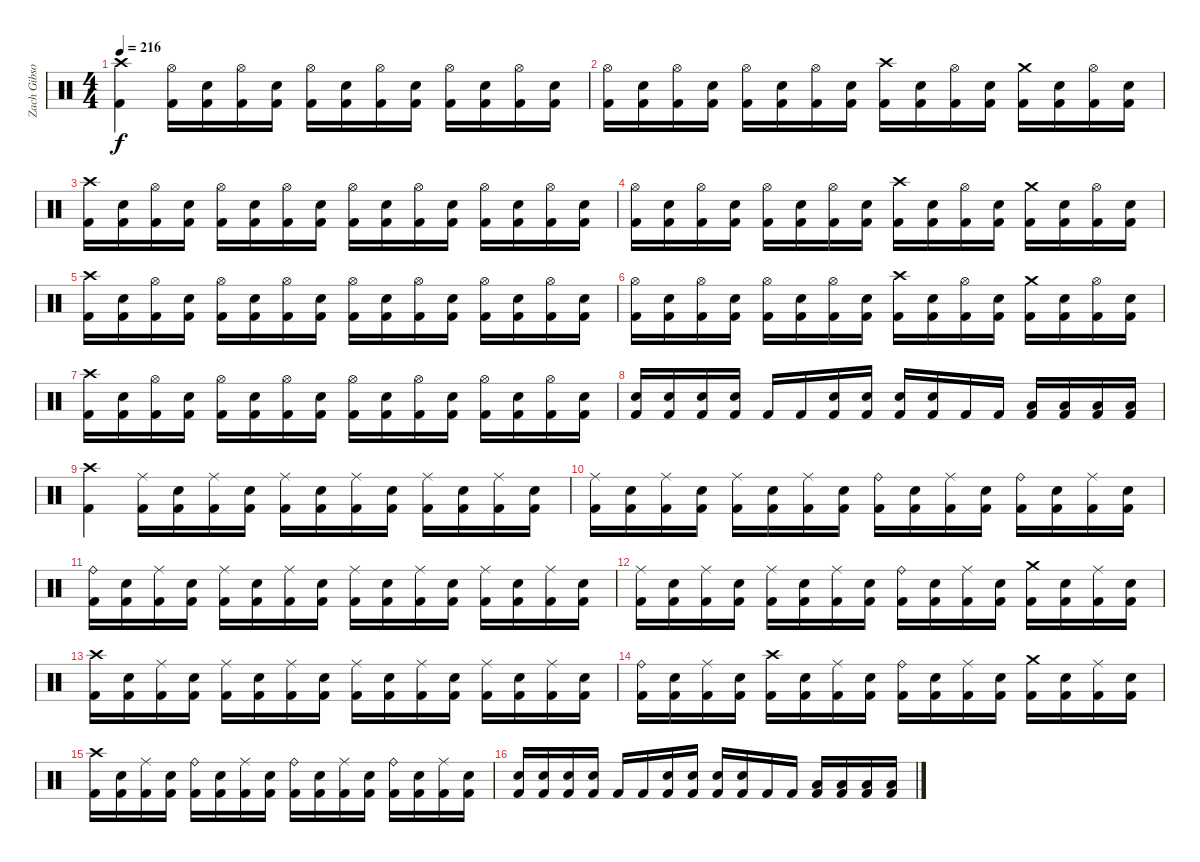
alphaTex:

\track ("Zach Gibson (Ex-Drums)" "Zach Gibso") {instrument percussion}
\staff {score}
\articulation defaults
\ts (4 4)
\tempo 216
\clef neutral
\ks c
("Crash high (hit)" "Kick (hit) 2").4{dy f} ("Hi-Hat (open)" "Kick (hit) 2").16 ("Snare (hit) 2" "Kick (hit) 2").16 ("Hi-Hat (open)" "Kick (hit) 2").16 ("Snare (hit) 2" "Kick (hit) 2").16 ("Hi-Hat (open)" "Kick (hit) 2").16 ("Snare (hit) 2" "Kick (hit) 2").16 ("Hi-Hat (open)" "Kick (hit) 2").16 ("Snare (hit) 2" "Kick (hit) 2").16 ("Hi-Hat (open)" "Kick (hit) 2").16 ("Snare (hit) 2" "Kick (hit) 2").16 ("Hi-Hat (open)" "Kick (hit) 2").16 ("Snare (hit) 2" "Kick (hit) 2").16 |
("Hi-Hat (open)" "Kick (hit) 2").16 ("Snare (hit) 2" "Kick (hit) 2").16 ("Hi-Hat (open)" "Kick (hit) 2").16 ("Snare (hit) 2" "Kick (hit) 2").16 ("Hi-Hat (open)" "Kick (hit) 2").16 ("Snare (hit) 2" "Kick (hit) 2").16 ("Hi-Hat (open)" "Kick (hit) 2").16 ("Snare (hit) 2" "Kick (hit) 2").16 ("Crash high (hit)" "Kick (hit) 2").16 ("Snare (hit) 2" "Kick (hit) 2").16 ("Hi-Hat (open)" "Kick (hit) 2").16 ("Snare (hit) 2" "Kick (hit) 2").16 ("Crash medium (hit)" "Kick (hit) 2").16 ("Snare (hit) 2" "Kick (hit) 2").16 ("Hi-Hat (open)" "Kick (hit) 2").16 ("Snare (hit) 2" "Kick (hit) 2").16 |
("Crash high (hit)" "Kick (hit) 2").16 ("Snare (hit) 2" "Kick (hit) 2").16 ("Hi-Hat (open)" "Kick (hit) 2").16 ("Snare (hit) 2" "Kick (hit) 2").16 ("Hi-Hat (open)" "Kick (hit) 2").16 ("Snare (hit) 2" "Kick (hit) 2").16 ("Hi-Hat (open)" "Kick (hit) 2").16 ("Snare (hit) 2" "Kick (hit) 2").16 ("Hi-Hat (open)" "Kick (hit) 2").16 ("Snare (hit) 2" "Kick (hit) 2").16 ("Hi-Hat (open)" "Kick (hit) 2").16 ("Snare (hit) 2" "Kick (hit) 2").16 ("Hi-Hat (open)" "Kick (hit) 2").16 ("Snare (hit) 2" "Kick (hit) 2").16 ("Hi-Hat (open)" "Kick (hit) 2").16 ("Snare (hit) 2" "Kick (hit) 2").16 |
("Hi-Hat (open)" "Kick (hit) 2").16 ("Snare (hit) 2" "Kick (hit) 2").16 ("Hi-Hat (open)" "Kick (hit) 2").16 ("Snare (hit) 2" "Kick (hit) 2").16 ("Hi-Hat (open)" "Kick (hit) 2").16 ("Snare (hit) 2" "Kick (hit) 2").16 ("Hi-Hat (open)" "Kick (hit) 2").16 ("Snare (hit) 2" "Kick (hit) 2").16 ("Crash high (hit)" "Kick (hit) 2").16 ("Snare (hit) 2" "Kick (hit) 2").16 ("Hi-Hat (open)" "Kick (hit) 2").16 ("Snare (hit) 2" "Kick (hit) 2").16 ("Crash medium (hit)" "Kick (hit) 2").16 ("Snare (hit) 2" "Kick (hit) 2").16 ("Hi-Hat (open)" "Kick (hit) 2").16 ("Snare (hit) 2" "Kick (hit) 2").16 |
("Crash high (hit)" "Kick (hit) 2").16 ("Snare (hit) 2" "Kick (hit) 2").16 ("Hi-Hat (open)" "Kick (hit) 2").16 ("Snare (hit) 2" "Kick (hit) 2").16 ("Hi-Hat (open)" "Kick (hit) 2").16 ("Snare (hit) 2" "Kick (hit) 2").16 ("Hi-Hat (open)" "Kick (hit) 2").16 ("Snare (hit) 2" "Kick (hit) 2").16 ("Hi-Hat (open)" "Kick (hit) 2").16 ("Snare (hit) 2" "Kick (hit) 2").16 ("Hi-Hat (open)" "Kick (hit) 2").16 ("Snare (hit) 2" "Kick (hit) 2").16 ("Hi-Hat (open)" "Kick (hit) 2").16 ("Snare (hit) 2" "Kick (hit) 2").16 ("Hi-Hat (open)" "Kick (hit) 2").16 ("Snare (hit) 2" "Kick (hit) 2").16 |
("Hi-Hat (open)" "Kick (hit) 2").16 ("Snare (hit) 2" "Kick (hit) 2").16 ("Hi-Hat (open)" "Kick (hit) 2").16 ("Snare (hit) 2" "Kick (hit) 2").16 ("Hi-Hat (open)" "Kick (hit) 2").16 ("Snare (hit) 2" "Kick (hit) 2").16 ("Hi-Hat (open)" "Kick (hit) 2").16 ("Snare (hit) 2" "Kick (hit) 2").16 ("Crash high (hit)" "Kick (hit) 2").16 ("Snare (hit) 2" "Kick (hit) 2").16 ("Hi-Hat (open)" "Kick (hit) 2").16 ("Snare (hit) 2" "Kick (hit) 2").16 ("Crash medium (hit)" "Kick (hit) 2").16 ("Snare (hit) 2" "Kick (hit) 2").16 ("Hi-Hat (open)" "Kick (hit) 2").16 ("Snare (hit) 2" "Kick (hit) 2").16 |
("Crash high (hit)" "Kick (hit) 2").16 ("Snare (hit) 2" "Kick (hit) 2").16 ("Hi-Hat (open)" "Kick (hit) 2").16 ("Snare (hit) 2" "Kick (hit) 2").16 ("Hi-Hat (open)" "Kick (hit) 2").16 ("Snare (hit) 2" "Kick (hit) 2").16 ("Hi-Hat (open)" "Kick (hit) 2").16 ("Snare (hit) 2" "Kick (hit) 2").16 ("Hi-Hat (open)" "Kick (hit) 2").16 ("Snare (hit) 2" "Kick (hit) 2").16 ("Hi-Hat (open)" "Kick (hit) 2").16 ("Snare (hit) 2" "Kick (hit) 2").16 ("Hi-Hat (open)" "Kick (hit) 2").16 ("Snare (hit) 2" "Kick (hit) 2").16 ("Hi-Hat (open)" "Kick (hit) 2").16 ("Snare (hit) 2" "Kick (hit) 2").16 |
("Snare (hit) 2" "Kick (hit) 2").16 ("Snare (hit) 2" "Kick (hit) 2").16 ("Snare (hit) 2" "Kick (hit) 2").16 ("Snare (hit) 2" "Kick (hit) 2").16 "Kick (hit) 2".16 "Kick (hit) 2".16 ("Snare (hit) 2" "Kick (hit) 2").16 ("Snare (hit) 2" "Kick (hit) 2").16 ("Snare (hit) 2" "Kick (hit) 2").16 ("Snare (hit) 2" "Kick (hit) 2").16 "Kick (hit) 2".16 "Kick (hit) 2".16 ("Low Tom (hit)" "Kick (hit) 2").16 ("Low Tom (hit)" "Kick (hit) 2").16 ("Low Floor Tom (hit)" "Kick (hit) 2").16 ("Low Floor Tom (hit)" "Kick (hit) 2").16 |
("Crash high (hit)" "Kick (hit) 2").4 ("Ride (middle)" "Kick (hit) 2").16 ("Snare (hit) 2" "Kick (hit) 2").16 ("Ride (middle)" "Kick (hit) 2").16 ("Snare (hit) 2" "Kick (hit) 2").16 ("Ride (middle)" "Kick (hit) 2").16 ("Snare (hit) 2" "Kick (hit) 2").16 ("Ride (middle)" "Kick (hit) 2").16 ("Snare (hit) 2" "Kick (hit) 2").16 ("Ride (middle)" "Kick (hit) 2").16 ("Snare (hit) 2" "Kick (hit) 2").16 ("Ride (middle)" "Kick (hit) 2").16 ("Snare (hit) 2" "Kick (hit) 2").16 |
("Ride (middle)" "Kick (hit) 2").16 ("Snare (hit) 2" "Kick (hit) 2").16 ("Ride (middle)" "Kick (hit) 2").16 ("Snare (hit) 2" "Kick (hit) 2").16 ("Ride (middle)" "Kick (hit) 2").16 ("Snare (hit) 2" "Kick (hit) 2").16 ("Ride (middle)" "Kick (hit) 2").16 ("Snare (hit) 2" "Kick (hit) 2").16 ("Ride (bell)" "Kick (hit) 2").16 ("Snare (hit) 2" "Kick (hit) 2").16 ("Ride (middle)" "Kick (hit) 2").16 ("Snare (hit) 2" "Kick (hit) 2").16 ("Ride (bell)" "Kick (hit) 2").16 ("Snare (hit) 2" "Kick (hit) 2").16 ("Ride (middle)" "Kick (hit) 2").16 ("Snare (hit) 2" "Kick (hit) 2").16 |
("Ride (bell)" "Kick (hit) 2").16 ("Snare (hit) 2" "Kick (hit) 2").16 ("Ride (middle)" "Kick (hit) 2").16 ("Snare (hit) 2" "Kick (hit) 2").16 ("Ride (middle)" "Kick (hit) 2").16 ("Snare (hit) 2" "Kick (hit) 2").16 ("Ride (middle)" "Kick (hit) 2").16 ("Snare (hit) 2" "Kick (hit) 2").16 ("Ride (middle)" "Kick (hit) 2").16 ("Snare (hit) 2" "Kick (hit) 2").16 ("Ride (middle)" "Kick (hit) 2").16 ("Snare (hit) 2" "Kick (hit) 2").16 ("Ride (middle)" "Kick (hit) 2").16 ("Snare (hit) 2" "Kick (hit) 2").16 ("Ride (middle)" "Kick (hit) 2").16 ("Snare (hit) 2" "Kick (hit) 2").16 |
("Ride (middle)" "Kick (hit) 2").16 ("Snare (hit) 2" "Kick (hit) 2").16 ("Ride (middle)" "Kick (hit) 2").16 ("Snare (hit) 2" "Kick (hit) 2").16 ("Ride (middle)" "Kick (hit) 2").16 ("Snare (hit) 2" "Kick (hit) 2").16 ("Ride (middle)" "Kick (hit) 2").16 ("Snare (hit) 2" "Kick (hit) 2").16 ("Ride (bell)" "Kick (hit) 2").16 ("Snare (hit) 2" "Kick (hit) 2").16 ("Ride (middle)" "Kick (hit) 2").16 ("Snare (hit) 2" "Kick (hit) 2").16 ("Crash medium (hit)" "Kick (hit) 2").16 ("Snare (hit) 2" "Kick (hit) 2").16 ("Ride (middle)" "Kick (hit) 2").16 ("Snare (hit) 2" "Kick (hit) 2").16 |
("Crash high (hit)" "Kick (hit) 2").16 ("Snare (hit) 2" "Kick (hit) 2").16 ("Ride (middle)" "Kick (hit) 2").16 ("Snare (hit) 2" "Kick (hit) 2").16 ("Ride (middle)" "Kick (hit) 2").16 ("Snare (hit) 2" "Kick (hit) 2").16 ("Ride (middle)" "Kick (hit) 2").16 ("Snare (hit) 2" "Kick (hit) 2").16 ("Ride (middle)" "Kick (hit) 2").16 ("Snare (hit) 2" "Kick (hit) 2").16 ("Ride (middle)" "Kick (hit) 2").16 ("Snare (hit) 2" "Kick (hit) 2").16 ("Ride (middle)" "Kick (hit) 2").16 ("Snare (hit) 2" "Kick (hit) 2").16 ("Ride (middle)" "Kick (hit) 2").16 ("Snare (hit) 2" "Kick (hit) 2").16 |
("Ride (bell)" "Kick (hit) 2").16 ("Snare (hit) 2" "Kick (hit) 2").16 ("Ride (middle)" "Kick (hit) 2").16 ("Snare (hit) 2" "Kick (hit) 2").16 ("Crash high (hit)" "Kick (hit) 2").16 ("Snare (hit) 2" "Kick (hit) 2").16 ("Ride (middle)" "Kick (hit) 2").16 ("Snare (hit) 2" "Kick (hit) 2").16 ("Ride (bell)" "Kick (hit) 2").16 ("Snare (hit) 2" "Kick (hit) 2").16 ("Ride (middle)" "Kick (hit) 2").16 ("Snare (hit) 2" "Kick (hit) 2").16 ("Crash medium (hit)" "Kick (hit) 2").16 ("Snare (hit) 2" "Kick (hit) 2").16 ("Ride (middle)" "Kick (hit) 2").16 ("Snare (hit) 2" "Kick (hit) 2").16 |
("Crash high (hit)" "Kick (hit) 2").16 ("Snare (hit) 2" "Kick (hit) 2").16 ("Ride (middle)" "Kick (hit) 2").16 ("Snare (hit) 2" "Kick (hit) 2").16 ("Ride (bell)" "Kick (hit) 2").16 ("Snare (hit) 2" "Kick (hit) 2").16 ("Ride (middle)" "Kick (hit) 2").16 ("Snare (hit) 2" "Kick (hit) 2").16 ("Ride (bell)" "Kick (hit) 2").16 ("Snare (hit) 2" "Kick (hit) 2").16 ("Ride (middle)" "Kick (hit) 2").16 ("Snare (hit) 2" "Kick (hit) 2").16 ("Ride (bell)" "Kick (hit) 2").16 ("Snare (hit) 2" "Kick (hit) 2").16 ("Ride (middle)" "Kick (hit) 2").16 ("Snare (hit) 2" "Kick (hit) 2").16 |
("Snare (hit) 2" "Kick (hit) 2").16 ("Snare (hit) 2" "Kick (hit) 2").16 ("Snare (hit) 2" "Kick (hit) 2").16 ("Snare (hit) 2" "Kick (hit) 2").16 "Kick (hit) 2".16 "Kick (hit) 2".16 ("Snare (hit) 2" "Kick (hit) 2").16 ("Snare (hit) 2" "Kick (hit) 2").16 ("Snare (hit) 2" "Kick (hit) 2").16 ("Snare (hit) 2" "Kick (hit) 2").16 "Kick (hit) 2".16 "Kick (hit) 2".16 ("Low Tom (hit)" "Kick (hit) 2").16 ("Low Tom (hit)" "Kick (hit) 2").16 ("Low Floor Tom (hit)" "Kick (hit) 2").16 ("Low Floor Tom (hit)" "Kick (hit) 2").16
